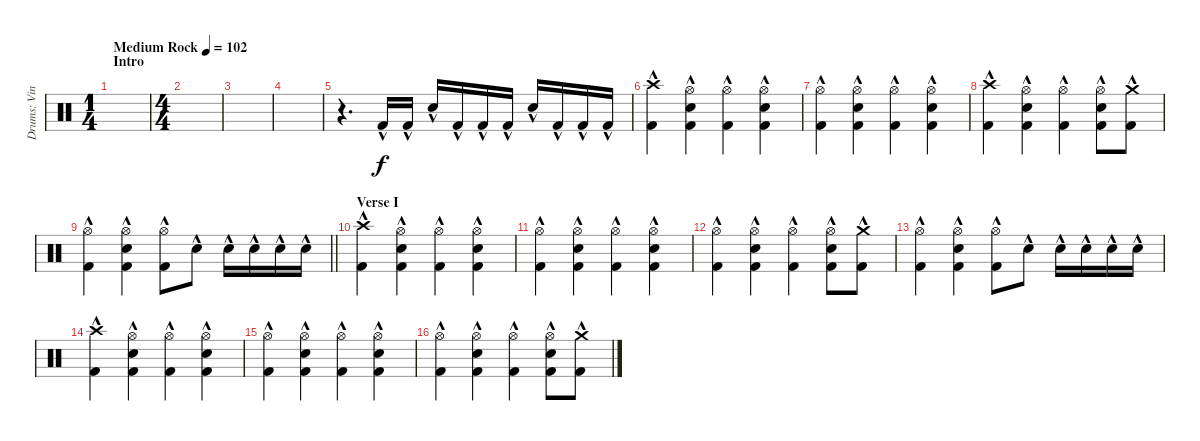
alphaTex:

\track ("Drums: Vinny" "Drums: Vin") {instrument percussion}
\staff {score}
\articulation defaults
\ts (1 4)
\section ("" "Intro")
\tempo (102 "Medium Rock")
\clef neutral
\ks c
|
\ts (4 4)
|
|
|
r.4{d} "Kick (hit) 2"{hac}.16 "Kick (hit) 2"{hac}.16 "Snare (hit) 2"{hac}.16 "Kick (hit) 2"{hac}.16 "Kick (hit) 2"{hac}.16 "Kick (hit) 2"{hac}.16 "Snare (hit) 2"{hac}.16 "Kick (hit) 2"{hac}.16 "Kick (hit) 2"{hac}.16 "Kick (hit) 2"{hac}.16 |
("Crash high (hit)"{hac} "Kick (hit) 2"{hac}).4 ("Hi-Hat (open)"{hac} "Snare (hit) 2"{hac} "Kick (hit) 2"{hac}).4 ("Hi-Hat (open)"{hac} "Kick (hit) 2"{hac}).4 ("Hi-Hat (open)"{hac} "Snare (hit) 2"{hac} "Kick (hit) 2"{hac}).4 |
("Hi-Hat (open)"{hac} "Kick (hit) 2"{hac}).4 ("Hi-Hat (open)"{hac} "Snare (hit) 2"{hac} "Kick (hit) 2"{hac}).4 ("Hi-Hat (open)"{hac} "Kick (hit) 2"{hac}).4 ("Hi-Hat (open)"{hac} "Snare (hit) 2"{hac} "Kick (hit) 2"{hac}).4 |
("Crash high (hit)"{hac} "Kick (hit) 2"{hac}).4 ("Hi-Hat (open)"{hac} "Snare (hit) 2"{hac} "Kick (hit) 2"{hac}).4 ("Hi-Hat (open)"{hac} "Kick (hit) 2"{hac}).4 ("Hi-Hat (open)"{hac} "Snare (hit) 2"{hac} "Kick (hit) 2"{hac}).8 ("Crash medium (hit)"{hac} "Kick (hit) 2"{hac}).8 |
\barLineRight lightlight
("Hi-Hat (open)"{hac} "Kick (hit) 2"{hac}).4 ("Hi-Hat (open)"{hac} "Snare (hit) 2"{hac} "Kick (hit) 2"{hac}).4 ("Hi-Hat (open)"{hac} "Kick (hit) 2"{hac}).8 "Snare (hit) 2"{hac}.8 "Snare (hit) 2"{hac}.16 "Snare (hit) 2"{hac}.16 "Snare (hit) 2"{hac}.16 "Snare (hit) 2"{hac}.16 |
\section ("" "Verse I")
("Crash high (hit)"{hac} "Kick (hit) 2"{hac}).4 ("Hi-Hat (open)"{hac} "Snare (hit) 2"{hac} "Kick (hit) 2"{hac}).4 ("Hi-Hat (open)"{hac} "Kick (hit) 2"{hac}).4 ("Hi-Hat (open)"{hac} "Snare (hit) 2"{hac} "Kick (hit) 2"{hac}).4 |
("Hi-Hat (open)"{hac} "Kick (hit) 2"{hac}).4 ("Hi-Hat (open)"{hac} "Snare (hit) 2"{hac} "Kick (hit) 2"{hac}).4 ("Hi-Hat (open)"{hac} "Kick (hit) 2"{hac}).4 ("Hi-Hat (open)"{hac} "Snare (hit) 2"{hac} "Kick (hit) 2"{hac}).4 |
("Hi-Hat (open)" "Kick (hit) 2"{hac}).4 ("Hi-Hat (open)"{hac} "Snare (hit) 2"{hac} "Kick (hit) 2"{hac}).4 ("Hi-Hat (open)"{hac} "Kick (hit) 2"{hac}).4 ("Hi-Hat (open)"{hac} "Snare (hit) 2"{hac} "Kick (hit) 2"{hac}).8 ("Crash medium (hit)"{hac} "Kick (hit) 2"{hac}).8 |
("Hi-Hat (open)"{hac} "Kick (hit) 2"{hac}).4 ("Hi-Hat (open)"{hac} "Snare (hit) 2"{hac} "Kick (hit) 2"{hac}).4 ("Hi-Hat (open)"{hac} "Kick (hit) 2"{hac}).8 "Snare (hit) 2"{hac}.8 "Snare (hit) 2"{hac}.16 "Snare (hit) 2"{hac}.16 "Snare (hit) 2"{hac}.16 "Snare (hit) 2"{hac}.16 |
("Crash high (hit)"{hac} "Kick (hit) 2"{hac}).4 ("Hi-Hat (open)"{hac} "Snare (hit) 2"{hac} "Kick (hit) 2"{hac}).4 ("Hi-Hat (open)"{hac} "Kick (hit) 2"{hac}).4 ("Hi-Hat (open)"{hac} "Snare (hit) 2"{hac} "Kick (hit) 2"{hac}).4 |
("Hi-Hat (open)"{hac} "Kick (hit) 2"{hac}).4 ("Hi-Hat (open)"{hac} "Snare (hit) 2"{hac} "Kick (hit) 2"{hac}).4 ("Hi-Hat (open)"{hac} "Kick (hit) 2"{hac}).4 ("Hi-Hat (open)"{hac} "Snare (hit) 2"{hac} "Kick (hit) 2"{hac}).4 |
("Hi-Hat (open)" "Kick (hit) 2"{hac}).4 ("Hi-Hat (open)"{hac} "Snare (hit) 2"{hac} "Kick (hit) 2"{hac}).4 ("Hi-Hat (open)"{hac} "Kick (hit) 2"{hac}).4 ("Hi-Hat (open)"{hac} "Snare (hit) 2"{hac} "Kick (hit) 2"{hac}).8 ("Crash medium (hit)"{hac} "Kick (hit) 2"{hac}).8
